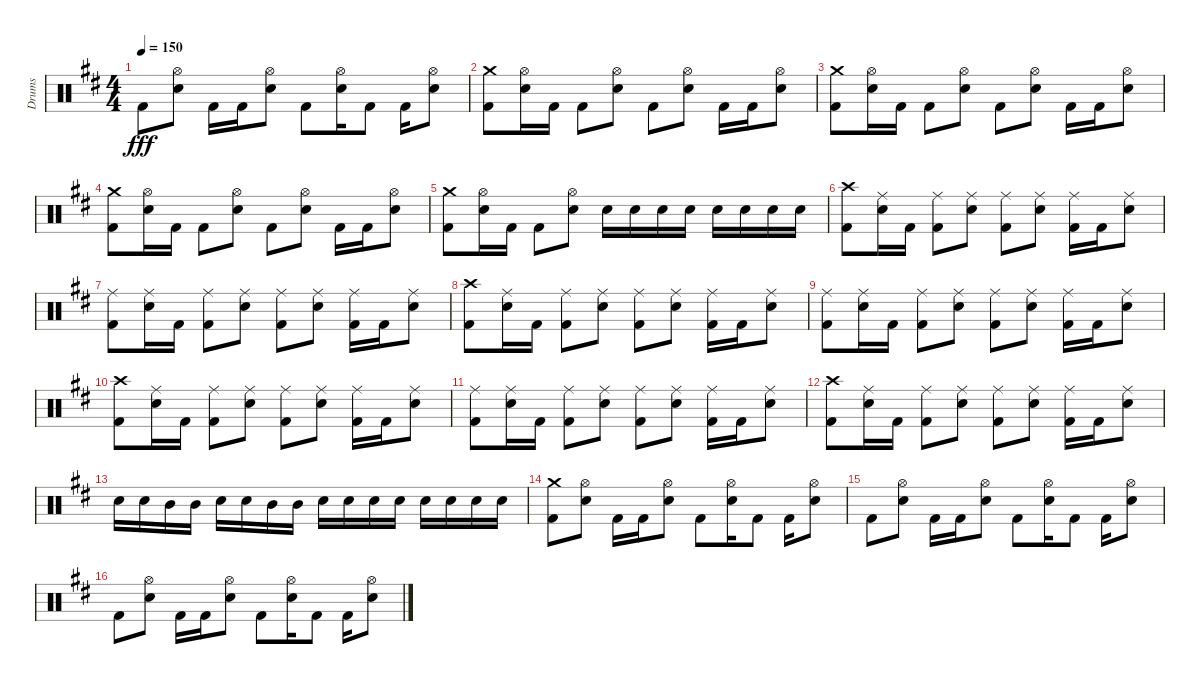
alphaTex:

\track ("Drums" "Drums") {instrument percussion}
\staff {score}
\articulation defaults
\ts (4 4)
\tempo 150
\clef neutral
\ks d "Kick (hit) 2".8{dy fff}
("Hi-Hat (open)" "Electric Snare (hit)").8 "Kick (hit) 2".16 "Kick (hit) 2".16 ("Hi-Hat (open)" "Electric Snare (hit)").8 "Kick (hit) 2".8 ("Hi-Hat (open)" "Electric Snare (hit)").16 "Kick (hit) 2".8 "Kick (hit) 2".16 ("Hi-Hat (open)" "Electric Snare (hit)").8 |
("Crash medium (hit)" "Kick (hit) 2").8 ("Hi-Hat (open)" "Electric Snare (hit)").16 "Kick (hit) 2".16 "Kick (hit) 2".8 ("Hi-Hat (open)" "Electric Snare (hit)").8 "Kick (hit) 2".8 ("Hi-Hat (open)" "Electric Snare (hit)").8 "Kick (hit) 2".16 "Kick (hit) 2".16 ("Hi-Hat (open)" "Electric Snare (hit)").8 |
("Crash medium (hit)" "Kick (hit) 2").8 ("Hi-Hat (open)" "Electric Snare (hit)").16 "Kick (hit) 2".16 "Kick (hit) 2".8 ("Hi-Hat (open)" "Electric Snare (hit)").8 "Kick (hit) 2".8 ("Hi-Hat (open)" "Electric Snare (hit)").8 "Kick (hit) 2".16 "Kick (hit) 2".16 ("Hi-Hat (open)" "Electric Snare (hit)").8 |
("Crash medium (hit)" "Kick (hit) 2").8 ("Hi-Hat (open)" "Electric Snare (hit)").16 "Kick (hit) 2".16 "Kick (hit) 2".8 ("Hi-Hat (open)" "Electric Snare (hit)").8 "Kick (hit) 2".8 ("Hi-Hat (open)" "Electric Snare (hit)").8 "Kick (hit) 2".16 "Kick (hit) 2".16 ("Hi-Hat (open)" "Electric Snare (hit)").8 |
("Crash medium (hit)" "Kick (hit) 2").8 ("Hi-Hat (open)" "Electric Snare (hit)").16 "Kick (hit) 2".16 "Kick (hit) 2".8 ("Hi-Hat (open)" "Electric Snare (hit)").8 "Electric Snare (hit)".16 "Electric Snare (hit)".16 "Electric Snare (hit)".16 "Electric Snare (hit)".16 "Electric Snare (hit)".16 "Electric Snare (hit)".16 "Electric Snare (hit)".16 "Electric Snare (hit)".16 |
("Crash high (hit)" "Kick (hit) 2").8 ("Ride (middle)" "Electric Snare (hit)").16 "Kick (hit) 2".16 ("Ride (middle)" "Kick (hit) 2").8 ("Ride (middle)" "Electric Snare (hit)").8 ("Ride (middle)" "Kick (hit) 2").8 ("Ride (middle)" "Electric Snare (hit)").8 ("Ride (middle)" "Kick (hit) 2").16 "Kick (hit) 2".16 ("Ride (middle)" "Electric Snare (hit)").8 |
("Ride (middle)" "Kick (hit) 2").8 ("Ride (middle)" "Electric Snare (hit)").16 "Kick (hit) 2".16 ("Ride (middle)" "Kick (hit) 2").8 ("Ride (middle)" "Electric Snare (hit)").8 ("Ride (middle)" "Kick (hit) 2").8 ("Ride (middle)" "Electric Snare (hit)").8 ("Ride (middle)" "Kick (hit) 2").16 "Kick (hit) 2".16 ("Ride (middle)" "Electric Snare (hit)").8 |
("Crash high (hit)" "Kick (hit) 2").8 ("Ride (middle)" "Electric Snare (hit)").16 "Kick (hit) 2".16 ("Ride (middle)" "Kick (hit) 2").8 ("Ride (middle)" "Electric Snare (hit)").8 ("Ride (middle)" "Kick (hit) 2").8 ("Ride (middle)" "Electric Snare (hit)").8 ("Ride (middle)" "Kick (hit) 2").16 "Kick (hit) 2".16 ("Ride (middle)" "Electric Snare (hit)").8 |
("Ride (middle)" "Kick (hit) 2").8 ("Ride (middle)" "Electric Snare (hit)").16 "Kick (hit) 2".16 ("Ride (middle)" "Kick (hit) 2").8 ("Ride (middle)" "Electric Snare (hit)").8 ("Ride (middle)" "Kick (hit) 2").8 ("Ride (middle)" "Electric Snare (hit)").8 ("Ride (middle)" "Kick (hit) 2").16 "Kick (hit) 2".16 ("Ride (middle)" "Electric Snare (hit)").8 |
("Crash high (hit)" "Kick (hit) 2").8 ("Ride (middle)" "Electric Snare (hit)").16 "Kick (hit) 2".16 ("Ride (middle)" "Kick (hit) 2").8 ("Ride (middle)" "Electric Snare (hit)").8 ("Ride (middle)" "Kick (hit) 2").8 ("Ride (middle)" "Electric Snare (hit)").8 ("Ride (middle)" "Kick (hit) 2").16 "Kick (hit) 2".16 ("Ride (middle)" "Electric Snare (hit)").8 |
("Ride (middle)" "Kick (hit) 2").8 ("Ride (middle)" "Electric Snare (hit)").16 "Kick (hit) 2".16 ("Ride (middle)" "Kick (hit) 2").8 ("Ride (middle)" "Electric Snare (hit)").8 ("Ride (middle)" "Kick (hit) 2").8 ("Ride (middle)" "Electric Snare (hit)").8 ("Ride (middle)" "Kick (hit) 2").16 "Kick (hit) 2".16 ("Ride (middle)" "Electric Snare (hit)").8 |
("Crash high (hit)" "Kick (hit) 2").8 ("Ride (middle)" "Electric Snare (hit)").16 "Kick (hit) 2".16 ("Ride (middle)" "Kick (hit) 2").8 ("Ride (middle)" "Electric Snare (hit)").8 ("Ride (middle)" "Kick (hit) 2").8 ("Ride (middle)" "Electric Snare (hit)").8 ("Ride (middle)" "Kick (hit) 2").16 "Kick (hit) 2".16 ("Ride (middle)" "Electric Snare (hit)").8 |
"Electric Snare (hit)".16 "Electric Snare (hit)".16 "Mid Tom (hit)".16 "Mid Tom (hit)".16 "Electric Snare (hit)".16 "Electric Snare (hit)".16 "Mid Tom (hit)".16 "Mid Tom (hit)".16 "Electric Snare (hit)".16 "Electric Snare (hit)".16 "Electric Snare (hit)".16 "Electric Snare (hit)".16 "Electric Snare (hit)".16 "Electric Snare (hit)".16 "Electric Snare (hit)".16 "Electric Snare (hit)".16 |
("Crash medium (hit)" "Kick (hit) 2").8 ("Hi-Hat (open)" "Electric Snare (hit)").8 "Kick (hit) 2".16 "Kick (hit) 2".16 ("Hi-Hat (open)" "Electric Snare (hit)").8 "Kick (hit) 2".8 ("Hi-Hat (open)" "Electric Snare (hit)").16 "Kick (hit) 2".8 "Kick (hit) 2".16 ("Hi-Hat (open)" "Electric Snare (hit)").8 |
"Kick (hit) 2".8 ("Hi-Hat (open)" "Electric Snare (hit)").8 "Kick (hit) 2".16 "Kick (hit) 2".16 ("Hi-Hat (open)" "Electric Snare (hit)").8 "Kick (hit) 2".8 ("Hi-Hat (open)" "Electric Snare (hit)").16 "Kick (hit) 2".8 "Kick (hit) 2".16 ("Hi-Hat (open)" "Electric Snare (hit)").8 |
"Kick (hit) 2".8 ("Hi-Hat (open)" "Electric Snare (hit)").8 "Kick (hit) 2".16 "Kick (hit) 2".16 ("Hi-Hat (open)" "Electric Snare (hit)").8 "Kick (hit) 2".8 ("Hi-Hat (open)" "Electric Snare (hit)").16 "Kick (hit) 2".8 "Kick (hit) 2".16 ("Hi-Hat (open)" "Electric Snare (hit)").8
